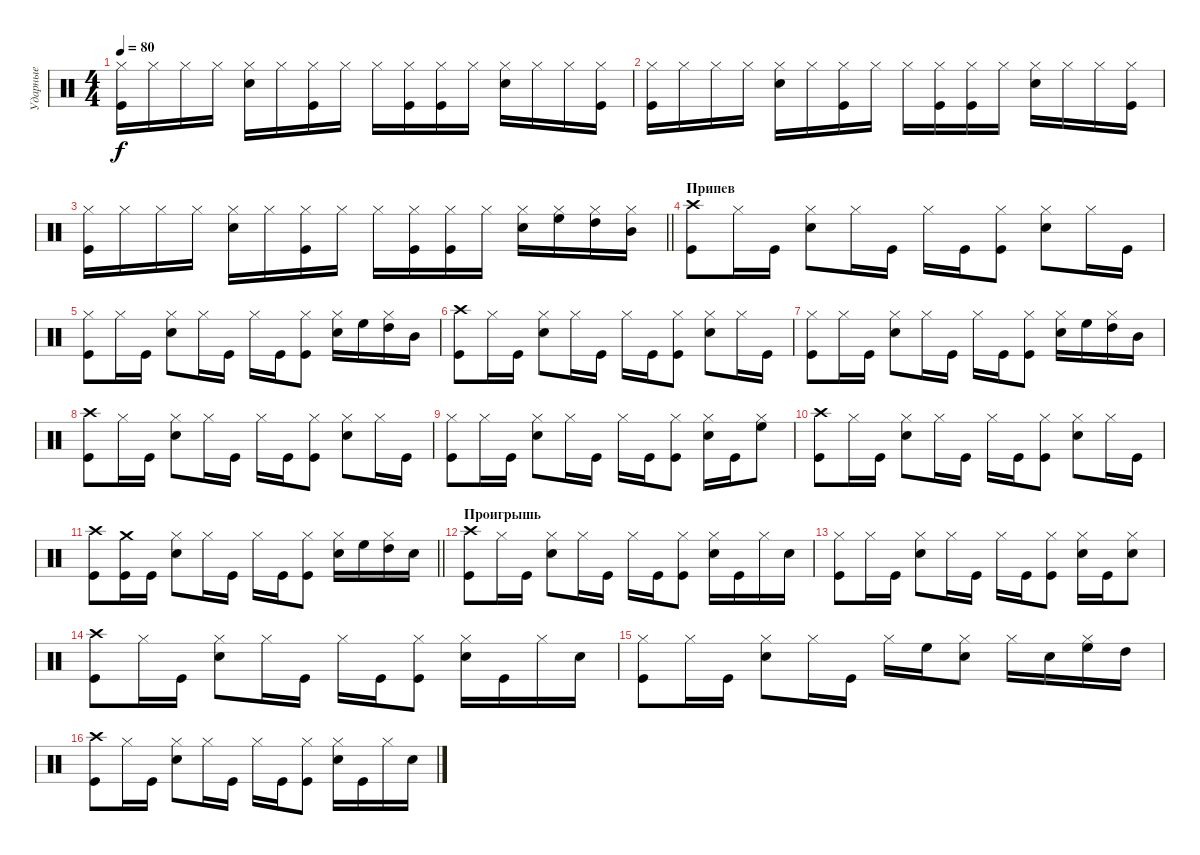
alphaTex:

\track ("Ударные" "Ударные") {instrument percussion}
\staff {score}
\articulation defaults
\ts (4 4)
\tempo 80
\clef neutral
\ks c
("Hi-Hat (closed)" "Kick (hit)").16{dy f} "Hi-Hat (closed)".16 "Hi-Hat (closed)".16 "Hi-Hat (closed)".16 ("Hi-Hat (closed)" "Snare (hit) 2").16 "Hi-Hat (closed)".16 ("Hi-Hat (closed)" "Kick (hit)").16 "Hi-Hat (closed)".16 "Hi-Hat (closed)".16 ("Hi-Hat (closed)" "Kick (hit)").16 ("Hi-Hat (closed)" "Kick (hit)").16 "Hi-Hat (closed)".16 ("Hi-Hat (closed)" "Snare (hit) 2").16 "Hi-Hat (closed)".16 "Hi-Hat (closed)".16 ("Hi-Hat (closed)" "Kick (hit)").16 |
("Hi-Hat (closed)" "Kick (hit)").16 "Hi-Hat (closed)".16 "Hi-Hat (closed)".16 "Hi-Hat (closed)".16 ("Hi-Hat (closed)" "Snare (hit) 2").16 "Hi-Hat (closed)".16 ("Hi-Hat (closed)" "Kick (hit)").16 "Hi-Hat (closed)".16 "Hi-Hat (closed)".16 ("Hi-Hat (closed)" "Kick (hit)").16 ("Hi-Hat (closed)" "Kick (hit)").16 "Hi-Hat (closed)".16 ("Hi-Hat (closed)" "Snare (hit) 2").16 "Hi-Hat (closed)".16 "Hi-Hat (closed)".16 ("Hi-Hat (closed)" "Kick (hit)").16 |
\barLineRight lightlight
("Hi-Hat (closed)" "Kick (hit)").16 "Hi-Hat (closed)".16 "Hi-Hat (closed)".16 "Hi-Hat (closed)".16 ("Hi-Hat (closed)" "Snare (hit) 2").16 "Hi-Hat (closed)".16 ("Hi-Hat (closed)" "Kick (hit)").16 "Hi-Hat (closed)".16 "Hi-Hat (closed)".16 ("Hi-Hat (closed)" "Kick (hit)").16 ("Hi-Hat (closed)" "Kick (hit)").16 "Hi-Hat (closed)".16 ("Hi-Hat (closed)" "Snare (hit) 2").16 ("Hi-Hat (closed)" "High Floor Tom (hit)").16 ("Hi-Hat (closed)" "High Tom (hit)").16 ("Hi-Hat (closed)" "Mid Tom (hit)").16 |
\section ("" "Припев")
("Crash high (hit)" "Kick (hit)").8 "Hi-Hat (closed)".16 "Kick (hit)".16 ("Hi-Hat (closed)" "Snare (hit) 2").8 "Hi-Hat (closed)".16 "Kick (hit)".16 "Hi-Hat (closed)".16 "Kick (hit)".16 ("Hi-Hat (closed)" "Kick (hit)").8 ("Hi-Hat (closed)" "Snare (hit) 2").8 "Hi-Hat (closed)".16 "Kick (hit)".16 |
("Hi-Hat (closed)" "Kick (hit)").8 "Hi-Hat (closed)".16 "Kick (hit)".16 ("Hi-Hat (closed)" "Snare (hit) 2").8 "Hi-Hat (closed)".16 "Kick (hit)".16 "Hi-Hat (closed)".16 "Kick (hit)".16 ("Hi-Hat (closed)" "Kick (hit)").8 ("Hi-Hat (closed)" "Snare (hit) 2").16 "High Floor Tom (hit)".16 ("Hi-Hat (closed)" "High Tom (hit)").16 "Mid Tom (hit)".16 |
("Crash high (hit)" "Kick (hit)").8 "Hi-Hat (closed)".16 "Kick (hit)".16 ("Hi-Hat (closed)" "Snare (hit) 2").8 "Hi-Hat (closed)".16 "Kick (hit)".16 "Hi-Hat (closed)".16 "Kick (hit)".16 ("Hi-Hat (closed)" "Kick (hit)").8 ("Hi-Hat (closed)" "Snare (hit) 2").8 "Hi-Hat (closed)".16 "Kick (hit)".16 |
("Hi-Hat (closed)" "Kick (hit)").8 "Hi-Hat (closed)".16 "Kick (hit)".16 ("Hi-Hat (closed)" "Snare (hit) 2").8 "Hi-Hat (closed)".16 "Kick (hit)".16 "Hi-Hat (closed)".16 "Kick (hit)".16 ("Hi-Hat (closed)" "Kick (hit)").8 ("Hi-Hat (closed)" "Snare (hit) 2").16 "High Floor Tom (hit)".16 ("Hi-Hat (closed)" "High Tom (hit)").16 "Mid Tom (hit)".16 |
("Crash high (hit)" "Kick (hit)").8 "Hi-Hat (closed)".16 "Kick (hit)".16 ("Hi-Hat (closed)" "Snare (hit) 2").8 "Hi-Hat (closed)".16 "Kick (hit)".16 "Hi-Hat (closed)".16 "Kick (hit)".16 ("Hi-Hat (closed)" "Kick (hit)").8 ("Hi-Hat (closed)" "Snare (hit) 2").8 "Hi-Hat (closed)".16 "Kick (hit)".16 |
("Hi-Hat (closed)" "Kick (hit)").8 "Hi-Hat (closed)".16 "Kick (hit)".16 ("Hi-Hat (closed)" "Snare (hit) 2").8 "Hi-Hat (closed)".16 "Kick (hit)".16 "Hi-Hat (closed)".16 "Kick (hit)".16 ("Hi-Hat (closed)" "Kick (hit)").8 ("Hi-Hat (closed)" "Snare (hit) 2").16 "Kick (hit)".16 ("Hi-Hat (closed)" "High Floor Tom (hit)").8 |
("Crash high (hit)" "Kick (hit)").8 "Hi-Hat (closed)".16 "Kick (hit)".16 ("Hi-Hat (closed)" "Snare (hit) 2").8 "Hi-Hat (closed)".16 "Kick (hit)".16 "Hi-Hat (closed)".16 "Kick (hit)".16 ("Hi-Hat (closed)" "Kick (hit)").8 ("Hi-Hat (closed)" "Snare (hit) 2").8 "Hi-Hat (closed)".16 "Kick (hit)".16 |
\barLineRight lightlight
("Crash high (hit)" "Kick (hit)").8 ("Crash medium (hit)" "Kick (hit)").16 "Kick (hit)".16 ("Hi-Hat (closed)" "Snare (hit) 2").8 "Hi-Hat (closed)".16 "Kick (hit)".16 "Hi-Hat (closed)".16 "Kick (hit)".16 ("Hi-Hat (closed)" "Kick (hit)").8 ("Hi-Hat (closed)" "Snare (hit) 2").16 "High Floor Tom (hit)".16 ("Hi-Hat (closed)" "High Tom (hit)").16 "Snare (hit) 2".16 |
\section ("" "Проигрышь")
("Crash high (hit)" "Kick (hit)").8 "Hi-Hat (closed)".16 "Kick (hit)".16 ("Hi-Hat (closed)" "Snare (hit) 2").8 "Hi-Hat (closed)".16 "Kick (hit)".16 "Hi-Hat (closed)".16 "Kick (hit)".16 ("Hi-Hat (closed)" "Kick (hit)").8 ("Hi-Hat (closed)" "Snare (hit) 2").16 "Kick (hit)".16 "Hi-Hat (closed)".16 "Snare (hit) 2".16 |
("Hi-Hat (closed)" "Kick (hit)").8 "Hi-Hat (closed)".16 "Kick (hit)".16 ("Hi-Hat (closed)" "Snare (hit) 2").8 "Hi-Hat (closed)".16 "Kick (hit)".16 "Hi-Hat (closed)".16 "Kick (hit)".16 ("Hi-Hat (closed)" "Kick (hit)").8 ("Hi-Hat (closed)" "Snare (hit) 2").16 "Kick (hit)".16 ("Hi-Hat (closed)" "Snare (hit) 2").8 |
("Crash high (hit)" "Kick (hit)").8 "Hi-Hat (closed)".16 "Kick (hit)".16 ("Hi-Hat (closed)" "Snare (hit) 2").8 "Hi-Hat (closed)".16 "Kick (hit)".16 "Hi-Hat (closed)".16 "Kick (hit)".16 ("Hi-Hat (closed)" "Kick (hit)").8 ("Hi-Hat (closed)" "Snare (hit) 2").16 "Kick (hit)".16 "Hi-Hat (closed)".16 "Snare (hit) 2".16 |
("Hi-Hat (closed)" "Kick (hit)").8 "Hi-Hat (closed)".16 "Kick (hit)".16 ("Hi-Hat (closed)" "Snare (hit) 2").8 "Hi-Hat (closed)".16 "Kick (hit)".16 "Hi-Hat (closed)".16 "High Floor Tom (hit)".16 ("Hi-Hat (closed)" "Snare (hit) 2").8 "Hi-Hat (closed)".16 "Snare (hit) 2".16 ("Hi-Hat (closed)" "High Floor Tom (hit)").16 "High Tom (hit)".16 |
("Crash high (hit)" "Kick (hit)").8 "Hi-Hat (closed)".16 "Kick (hit)".16 ("Hi-Hat (closed)" "Snare (hit) 2").8 "Hi-Hat (closed)".16 "Kick (hit)".16 "Hi-Hat (closed)".16 "Kick (hit)".16 ("Hi-Hat (closed)" "Kick (hit)").8 ("Hi-Hat (closed)" "Snare (hit) 2").16 "Kick (hit)".16 "Hi-Hat (closed)".16 "Snare (hit) 2".16
